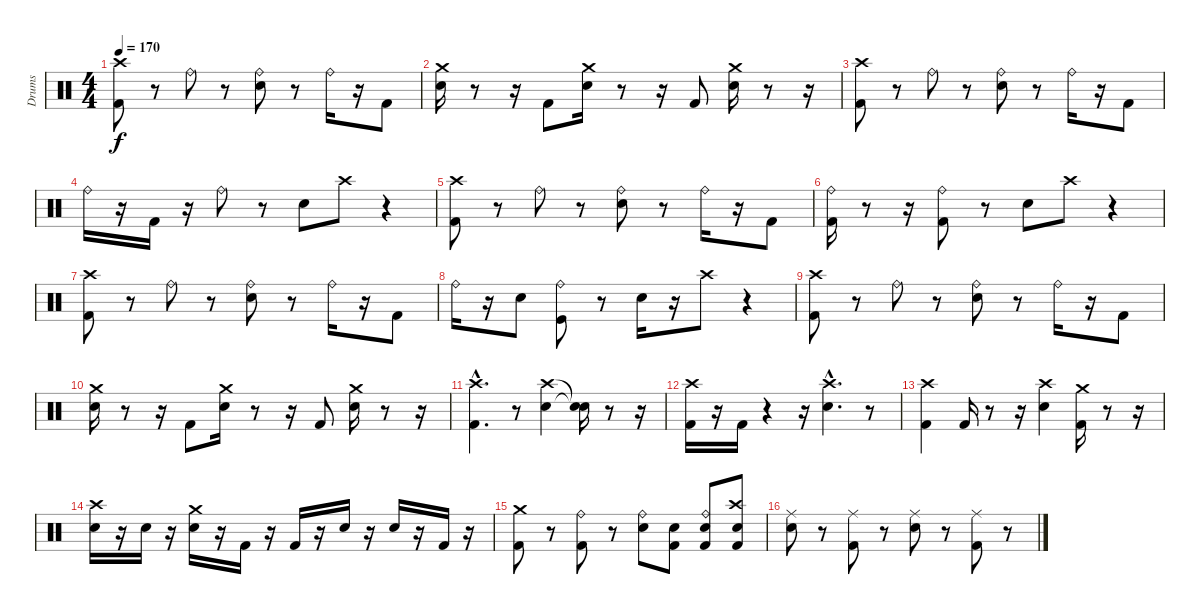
\track ("Drums" "Drums") {instrument percussion}
\staff {score}
\articulation defaults
\ts (4 4)
\tempo 170
\clef neutral
\ks c
("Kick (hit) 2" "Crash high (hit)").8{dy f} r.8 "Ride (bell)".8 r.8 ("Electric Snare (hit)" "Ride (bell)").8 r.8 "Ride (bell)".16 r.16 "Kick (hit) 2".8 |
("Electric Snare (hit)" "Crash medium (hit)").16 r.8 r.16 "Kick (hit) 2".8 ("Electric Snare (hit)" "Crash medium (hit)").16 r.8 r.16 "Kick (hit) 2".8 ("Electric Snare (hit)" "Crash medium (hit)").16 r.8 r.16 |
("Kick (hit) 2" "Crash high (hit)").8 r.8 "Ride (bell)".8 r.8 ("Electric Snare (hit)" "Ride (bell)").8 r.8 "Ride (bell)".16 r.16 "Kick (hit) 2".8 |
"Ride (bell)".16 r.16 "Kick (hit) 2".16 r.16 "Ride (bell)".8 r.8 "Electric Snare (hit)".8 "Crash high (hit)".8 r.4 |
("Kick (hit) 2" "Crash high (hit)").8 r.8 "Ride (bell)".8 r.8 ("Electric Snare (hit)" "Ride (bell)").8 r.8 "Ride (bell)".16 r.16 "Kick (hit) 2".8 |
("Kick (hit) 2" "Ride (bell)").16 r.8 r.16 ("Kick (hit) 2" "Ride (bell)").8 r.8 "Electric Snare (hit)".8 "Crash high (hit)".8 r.4 |
("Kick (hit) 2" "Crash high (hit)").8 r.8 "Ride (bell)".8 r.8 ("Electric Snare (hit)" "Ride (bell)").8 r.8 "Ride (bell)".16 r.16 "Kick (hit) 2".8 |
"Ride (bell)".16 r.16 "Electric Snare (hit)".8 ("Kick (hit)" "Ride (bell)").8 r.8 "Electric Snare (hit)".16 r.16 "Crash high (hit)".8 r.4 |
("Kick (hit) 2" "Crash high (hit)").8 r.8 "Ride (bell)".8 r.8 ("Electric Snare (hit)" "Ride (bell)").8 r.8 "Ride (bell)".16 r.16 "Kick (hit) 2".8 |
("Electric Snare (hit)" "Crash medium (hit)").16 r.8 r.16 "Kick (hit) 2".8 ("Electric Snare (hit)" "Crash medium (hit)").16 r.8 r.16 "Kick (hit) 2".8 ("Electric Snare (hit)" "Crash medium (hit)").16 r.8 r.16 |
("Kick (hit) 2"{hac} "Crash high (hit)"{hac}).4{d} r.8 ("Electric Snare (hit)" "Crash high (hit)").4 ("Snare (hit)"{t} "Snare (hit)"{t}).16 r.8 r.16 |
("Kick (hit) 2" "Crash high (hit)").16 r.16 "Kick (hit) 2".16 r.4 r.16 ("Electric Snare (hit)"{hac} "Crash high (hit)"{hac}).4{d} r.8 |
("Kick (hit) 2" "Crash high (hit)").4 "Kick (hit) 2".16 r.8 r.16 ("Electric Snare (hit)" "Crash high (hit)").4 ("Kick (hit) 2" "Crash medium (hit)").16 r.8 r.16 |
("Electric Snare (hit)" "Crash high (hit)").16 r.16 "Electric Snare (hit)".16 r.16 ("Electric Snare (hit)" "Crash medium (hit)").16 r.16 "Kick (hit) 2".16 r.16 "Kick (hit) 2".16 r.16 "Electric Snare (hit)".16 r.16 "Electric Snare (hit)".16 r.16 "Kick (hit) 2".16 r.16 |
("Kick (hit) 2" "Crash medium (hit)").8 r.8 ("Kick (hit) 2" "Ride (bell)").8 r.8 ("Electric Snare (hit)" "Ride (bell)").8 ("Snare (hit)" "Kick (hit) 2").8 ("Snare (hit)" "Kick (hit) 2" "Ride (bell)").8 ("Snare (hit)" "Kick (hit) 2" "Crash high (hit)").8 |
("Snare (hit)" "Ride (middle)").8 r.8 ("Kick (hit) 2" "Ride (middle)").8 r.8 ("Electric Snare (hit)" "Ride (middle)").8 r.8 ("Kick (hit) 2" "Ride (middle)").8 r.8
